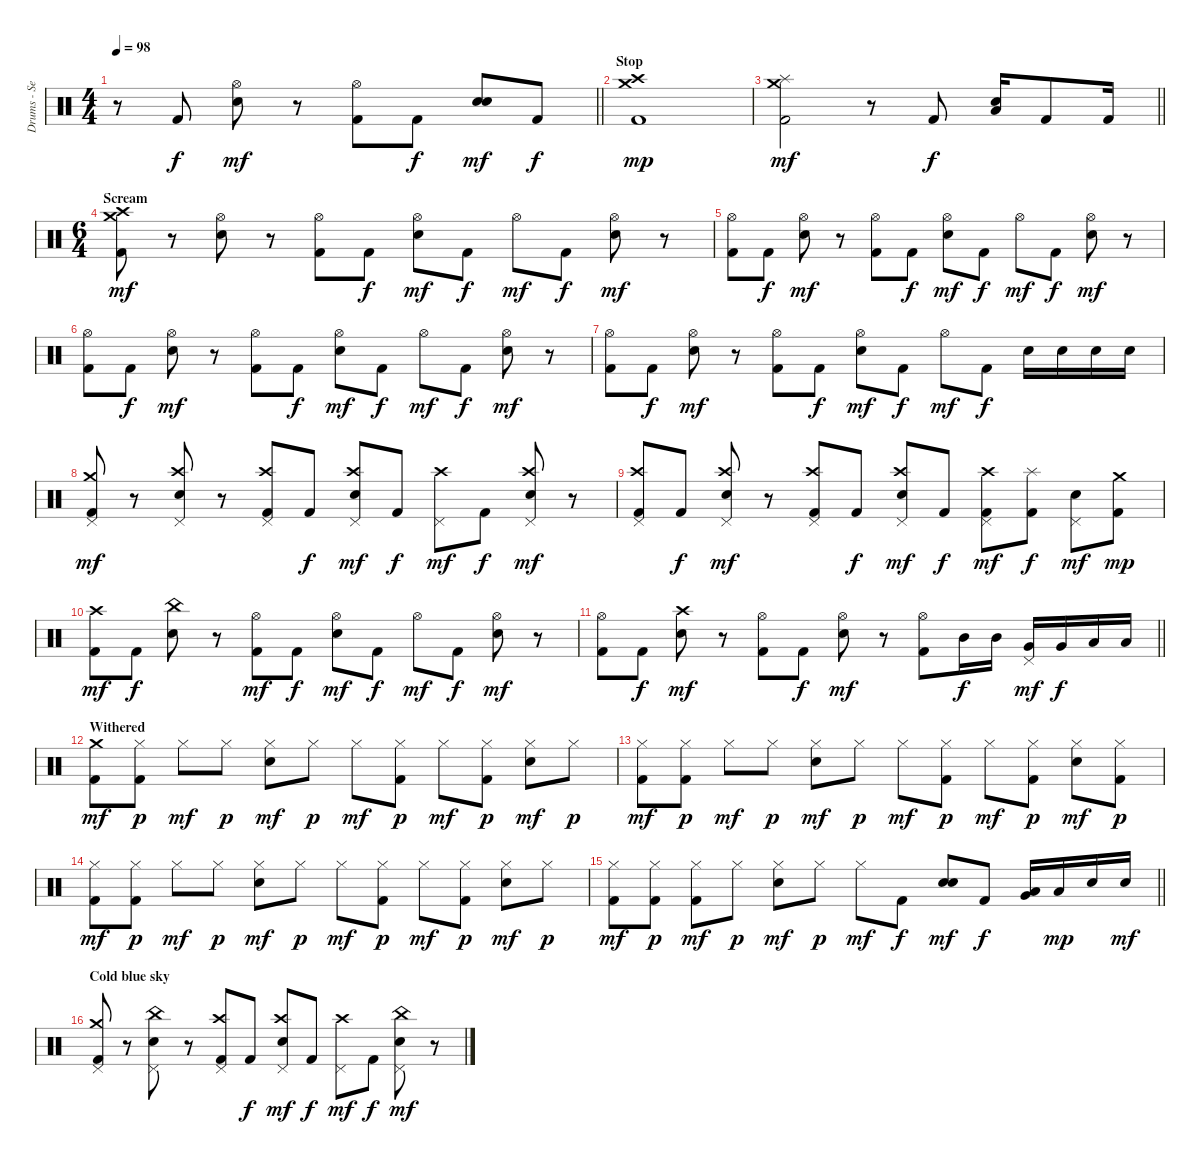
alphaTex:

\track ("Drums - Sean Kinney" "Drums - Se") {instrument percussion}
\staff {score}
\articulation defaults
\ts (4 4)
\tempo 98
\clef neutral
\barLineRight lightlight
\ks c
r.8{dy mf} "Kick (hit) 2".8{dy f} ("Hi-Hat (open)" "Snare (hit) 2").8{dy mf} r.8 ("Hi-Hat (open)" "Kick (hit) 2").8 "Kick (hit) 2".8{dy f} ("Electric Snare (hit)" "Snare (hit) 2").8{dy mf} "Kick (hit) 2".8{dy f} |
\section ("" "Stop")
("Crash high (hit)" "Crash medium (hit)" "Kick (hit) 2").1{dy mp} |
\barLineRight lightlight
("Splash (hit)" "Crash medium (hit)" "Kick (hit) 2").2{dy mf} r.8 "Kick (hit) 2".8{dy f} ("Low Tom (hit)" "Snare (hit) 2").16 "Kick (hit) 2".8 "Kick (hit) 2".16 |
\ts (6 4)
\section ("" "Scream")
("Crash medium (hit)" "Crash high (hit)" "Kick (hit) 2").8{dy mf} r.8 ("Hi-Hat (open)" "Snare (hit) 2").8 r.8 ("Hi-Hat (open)" "Kick (hit) 2").8 "Kick (hit) 2".8{dy f} ("Hi-Hat (open)" "Snare (hit) 2").8{dy mf} "Kick (hit) 2".8{dy f} "Hi-Hat (open)".8{dy mf} "Kick (hit) 2".8{dy f} ("Hi-Hat (open)" "Snare (hit) 2").8{dy mf} r.8 |
("Hi-Hat (open)" "Kick (hit) 2").8 "Kick (hit) 2".8{dy f} ("Hi-Hat (open)" "Snare (hit) 2").8{dy mf} r.8 ("Hi-Hat (open)" "Kick (hit) 2").8 "Kick (hit) 2".8{dy f} ("Hi-Hat (open)" "Snare (hit) 2").8{dy mf} "Kick (hit) 2".8{dy f} "Hi-Hat (open)".8{dy mf} "Kick (hit) 2".8{dy f} ("Hi-Hat (open)" "Snare (hit) 2").8{dy mf} r.8 |
("Hi-Hat (open)" "Kick (hit) 2").8 "Kick (hit) 2".8{dy f} ("Hi-Hat (open)" "Snare (hit) 2").8{dy mf} r.8 ("Hi-Hat (open)" "Kick (hit) 2").8 "Kick (hit) 2".8{dy f} ("Hi-Hat (open)" "Snare (hit) 2").8{dy mf} "Kick (hit) 2".8{dy f} "Hi-Hat (open)".8{dy mf} "Kick (hit) 2".8{dy f} ("Hi-Hat (open)" "Snare (hit) 2").8{dy mf} r.8 |
("Hi-Hat (open)" "Kick (hit) 2").8 "Kick (hit) 2".8{dy f} ("Hi-Hat (open)" "Snare (hit) 2").8{dy mf} r.8 ("Hi-Hat (open)" "Kick (hit) 2").8 "Kick (hit) 2".8{dy f} ("Hi-Hat (open)" "Snare (hit) 2").8{dy mf} "Kick (hit) 2".8{dy f} "Hi-Hat (open)".8{dy mf} "Kick (hit) 2".8{dy f} "Snare (hit) 2".16 "Snare (hit) 2".16 "Snare (hit) 2".16 "Snare (hit) 2".16 |
("Crash medium (hit)" "Pedal Hi-Hat (hit)" "Kick (hit) 2").8{dy mf} r.8 ("Crash high (hit)" "Pedal Hi-Hat (hit)" "Snare (hit) 2").8 r.8 ("Crash high (hit)" "Pedal Hi-Hat (hit)" "Kick (hit) 2").8 "Kick (hit) 2".8{dy f} ("Crash high (hit)" "Pedal Hi-Hat (hit)" "Snare (hit) 2").8{dy mf} "Kick (hit) 2".8{dy f} ("Crash high (hit)" "Pedal Hi-Hat (hit)").8{dy mf} "Kick (hit) 2".8{dy f} ("Crash high (hit)" "Pedal Hi-Hat (hit)" "Snare (hit) 2").8{dy mf} r.8 |
("Crash high (hit)" "Pedal Hi-Hat (hit)" "Kick (hit) 2").8 "Kick (hit) 2".8{dy f} ("Crash high (hit)" "Pedal Hi-Hat (hit)" "Snare (hit) 2").8{dy mf} r.8 ("Crash high (hit)" "Pedal Hi-Hat (hit)" "Kick (hit) 2").8 "Kick (hit) 2".8{dy f} ("Crash high (hit)" "Pedal Hi-Hat (hit)" "Snare (hit) 2").8{dy mf} "Kick (hit) 2".8{dy f} ("Crash high (hit)" "Pedal Hi-Hat (hit)" "Kick (hit) 2").8{dy mf} ("Splash (hit)" "Kick (hit) 2").8{dy f} ("Pedal Hi-Hat (hit)" "Snare (hit) 2").8{dy mf} ("Crash medium (hit)" "Kick (hit) 2").8{dy mp} |
("Crash high (hit)" "Kick (hit) 2").8{dy mf} "Kick (hit) 2".8{dy f} ("China (hit)" "Snare (hit) 2").8 r.8 ("Hi-Hat (open)" "Kick (hit) 2").8{dy mf} "Kick (hit) 2".8{dy f} ("Hi-Hat (open)" "Snare (hit) 2").8{dy mf} "Kick (hit) 2".8{dy f} "Hi-Hat (open)".8{dy mf} "Kick (hit) 2".8{dy f} ("Hi-Hat (open)" "Snare (hit) 2").8{dy mf} r.8 |
\barLineRight lightlight
("Hi-Hat (open)" "Kick (hit) 2").8 "Kick (hit) 2".8{dy f} ("Crash high (hit)" "Snare (hit) 2").8{dy mf} r.8 ("Hi-Hat (open)" "Kick (hit) 2").8 "Kick (hit) 2".8{dy f} ("Hi-Hat (open)" "Snare (hit) 2").8{dy mf} r.8 ("Hi-Hat (open)" "Kick (hit) 2").8 "Mid Tom (hit)".16{dy f} "Mid Tom (hit)".16 ("Pedal Hi-Hat (hit)" "Very Low Tom (hit)").16{dy mf} "Very Low Tom (hit)".16{dy f} "Low Floor Tom (hit)".16 "Low Floor Tom (hit)".16 |
\section ("" "Withered")
("Crash medium (hit)" "Kick (hit) 2").8{dy mf} ("Hi-Hat (closed)" "Kick (hit) 2").8{dy p} "Hi-Hat (closed)".8{dy mf} "Hi-Hat (closed)".8{dy p} ("Hi-Hat (closed)" "Snare (hit) 2").8{dy mf} "Hi-Hat (closed)".8{dy p} "Hi-Hat (closed)".8{dy mf} ("Hi-Hat (closed)" "Kick (hit) 2").8{dy p} "Hi-Hat (closed)".8{dy mf} ("Hi-Hat (closed)" "Kick (hit) 2").8{dy p} ("Hi-Hat (closed)" "Snare (hit) 2").8{dy mf} "Hi-Hat (closed)".8{dy p} |
("Hi-Hat (closed)" "Kick (hit) 2").8{dy mf} ("Hi-Hat (closed)" "Kick (hit) 2").8{dy p} "Hi-Hat (closed)".8{dy mf} "Hi-Hat (closed)".8{dy p} ("Hi-Hat (closed)" "Snare (hit) 2").8{dy mf} "Hi-Hat (closed)".8{dy p} "Hi-Hat (closed)".8{dy mf} ("Hi-Hat (closed)" "Kick (hit) 2").8{dy p} "Hi-Hat (closed)".8{dy mf} ("Hi-Hat (closed)" "Kick (hit) 2").8{dy p} ("Hi-Hat (closed)" "Snare (hit) 2").8{dy mf} ("Hi-Hat (closed)" "Kick (hit) 2").8{dy p} |
("Hi-Hat (closed)" "Kick (hit) 2").8{dy mf} ("Hi-Hat (closed)" "Kick (hit) 2").8{dy p} "Hi-Hat (closed)".8{dy mf} "Hi-Hat (closed)".8{dy p} ("Hi-Hat (closed)" "Snare (hit) 2").8{dy mf} "Hi-Hat (closed)".8{dy p} "Hi-Hat (closed)".8{dy mf} ("Hi-Hat (closed)" "Kick (hit) 2").8{dy p} "Hi-Hat (closed)".8{dy mf} ("Hi-Hat (closed)" "Kick (hit) 2").8{dy p} ("Hi-Hat (closed)" "Snare (hit) 2").8{dy mf} "Hi-Hat (closed)".8{dy p} |
\barLineRight lightlight
("Hi-Hat (closed)" "Kick (hit) 2").8{dy mf} ("Hi-Hat (closed)" "Kick (hit) 2").8{dy p} ("Hi-Hat (closed)" "Kick (hit) 2").8{dy mf} "Hi-Hat (closed)".8{dy p} ("Hi-Hat (closed)" "Snare (hit) 2").8{dy mf} "Hi-Hat (closed)".8{dy p} "Hi-Hat (closed)".8{dy mf} "Kick (hit) 2".8{dy f} ("Electric Snare (hit)" "Snare (hit) 2").8{dy mf} "Kick (hit) 2".8{dy f} ("Low Tom (hit)" "Very Low Tom (hit)").16 "Low Tom (hit)".16{dy mp} "Snare (hit) 2".16 "Snare (hit) 2".16{dy mf} |
\section ("" "Cold blue sky")
("Crash medium (hit)" "Pedal Hi-Hat (hit)" "Kick (hit) 2").8 r.8 ("China (hit)" "Pedal Hi-Hat (hit)" "Snare (hit) 2").8 r.8 ("Crash high (hit)" "Pedal Hi-Hat (hit)" "Kick (hit) 2").8 "Kick (hit) 2".8{dy f} ("Crash high (hit)" "Pedal Hi-Hat (hit)" "Snare (hit) 2").8{dy mf} "Kick (hit) 2".8{dy f} ("Crash high (hit)" "Pedal Hi-Hat (hit)").8{dy mf} "Kick (hit) 2".8{dy f} ("China (hit)" "Pedal Hi-Hat (hit)" "Snare (hit) 2").8{dy mf} r.8
